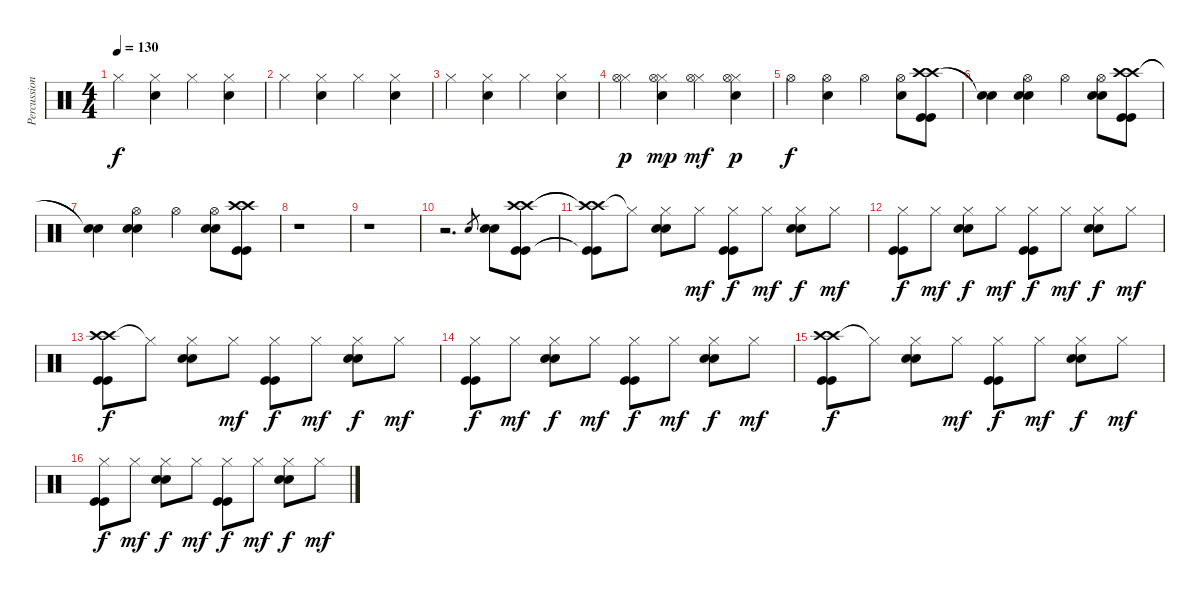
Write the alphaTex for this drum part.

\track ("Percussions" "Percussion") {instrument percussion}
\staff {score}
\articulation defaults
\ts (4 4)
\tempo 130
\clef neutral
\ks c "Hi-Hat (closed)".4{dy f}
("Hi-Hat (closed)" "Snare (hit) 2").4 "Hi-Hat (closed)".4 ("Hi-Hat (closed)" "Snare (hit) 2").4 |
"Hi-Hat (closed)".4 ("Hi-Hat (closed)" "Snare (hit) 2").4 "Hi-Hat (closed)".4 ("Hi-Hat (closed)" "Snare (hit) 2").4 |
"Hi-Hat (closed)".4 ("Hi-Hat (closed)" "Snare (hit) 2").4 "Hi-Hat (closed)".4 ("Hi-Hat (closed)" "Snare (hit) 2").4 |
("Hi-Hat (closed)" "Hi-Hat (open)").4{dy p} ("Hi-Hat (closed)" "Snare (hit) 2" "Hi-Hat (open)").4{dy mp} ("Hi-Hat (closed)" "Hi-Hat (open)").4{dy mf} ("Hi-Hat (closed)" "Snare (hit) 2" "Hi-Hat (open)").4{dy p} |
"Hi-Hat (open)".4{dy f} ("Hi-Hat (open)" "Snare (hit) 2").4 "Hi-Hat (open)".4 ("Hi-Hat (open)" "Snare (hit) 2").8 ("Crash high (hit)" "Crash high (hit)" "Kick (hit)" "Kick (hit)").8 |
("Snare (hit)"{t} "Snare (hit)"{t}).4 ("Hi-Hat (open)" "Snare (hit) 2" "Snare (hit) 2").4 "Hi-Hat (open)".4 ("Hi-Hat (open)" "Snare (hit) 2" "Snare (hit) 2").8 ("Crash high (hit)" "Crash high (hit)" "Kick (hit)" "Kick (hit)").8 |
("Snare (hit)"{t} "Snare (hit)"{t}).4 ("Hi-Hat (open)" "Snare (hit) 2" "Snare (hit) 2").4 "Hi-Hat (open)".4 ("Hi-Hat (open)" "Snare (hit) 2" "Snare (hit) 2").8 ("Crash high (hit)" "Crash high (hit)" "Kick (hit)" "Kick (hit)").8 |
r.1 |
r.1 |
r.2{d} "Snare (hit) 2".8{gr} ("Snare (hit) 2" "Snare (hit) 2").8 ("Crash high (hit)" "Crash high (hit)" "Kick (hit)" "Kick (hit)").8 |
("Crash high (hit)"{t} "Crash high (hit)"{t} "Kick (hit)"{t} "Kick (hit)"{t}).8 "Hi-Hat (closed)"{t}.8 ("Hi-Hat (closed)" "Snare (hit) 2" "Snare (hit) 2").8 "Hi-Hat (closed)".8{dy mf} ("Hi-Hat (closed)" "Kick (hit)" "Kick (hit)").8{dy f} "Hi-Hat (closed)".8{dy mf} ("Hi-Hat (closed)" "Snare (hit) 2" "Snare (hit) 2").8{dy f} "Hi-Hat (closed)".8{dy mf} |
("Hi-Hat (closed)" "Kick (hit)" "Kick (hit)").8{dy f} "Hi-Hat (closed)".8{dy mf} ("Hi-Hat (closed)" "Snare (hit) 2" "Snare (hit) 2").8{dy f} "Hi-Hat (closed)".8{dy mf} ("Hi-Hat (closed)" "Kick (hit)" "Kick (hit)").8{dy f} "Hi-Hat (closed)".8{dy mf} ("Hi-Hat (closed)" "Snare (hit) 2" "Snare (hit) 2").8{dy f} "Hi-Hat (closed)".8{dy mf} |
("Crash high (hit)" "Crash high (hit)" "Kick (hit)" "Kick (hit)").8{dy f} "Hi-Hat (closed)"{t}.8 ("Hi-Hat (closed)" "Snare (hit) 2" "Snare (hit) 2").8 "Hi-Hat (closed)".8{dy mf} ("Hi-Hat (closed)" "Kick (hit)" "Kick (hit)").8{dy f} "Hi-Hat (closed)".8{dy mf} ("Hi-Hat (closed)" "Snare (hit) 2" "Snare (hit) 2").8{dy f} "Hi-Hat (closed)".8{dy mf} |
("Hi-Hat (closed)" "Kick (hit)" "Kick (hit)").8{dy f} "Hi-Hat (closed)".8{dy mf} ("Hi-Hat (closed)" "Snare (hit) 2" "Snare (hit) 2").8{dy f} "Hi-Hat (closed)".8{dy mf} ("Hi-Hat (closed)" "Kick (hit)" "Kick (hit)").8{dy f} "Hi-Hat (closed)".8{dy mf} ("Hi-Hat (closed)" "Snare (hit) 2" "Snare (hit) 2").8{dy f} "Hi-Hat (closed)".8{dy mf} |
("Crash high (hit)" "Crash high (hit)" "Kick (hit)" "Kick (hit)").8{dy f} "Hi-Hat (closed)"{t}.8 ("Hi-Hat (closed)" "Snare (hit) 2" "Snare (hit) 2").8 "Hi-Hat (closed)".8{dy mf} ("Hi-Hat (closed)" "Kick (hit)" "Kick (hit)").8{dy f} "Hi-Hat (closed)".8{dy mf} ("Hi-Hat (closed)" "Snare (hit) 2" "Snare (hit) 2").8{dy f} "Hi-Hat (closed)".8{dy mf} |
("Hi-Hat (closed)" "Kick (hit)" "Kick (hit)").8{dy f} "Hi-Hat (closed)".8{dy mf} ("Hi-Hat (closed)" "Snare (hit) 2" "Snare (hit) 2").8{dy f} "Hi-Hat (closed)".8{dy mf} ("Hi-Hat (closed)" "Kick (hit)" "Kick (hit)").8{dy f} "Hi-Hat (closed)".8{dy mf} ("Hi-Hat (closed)" "Snare (hit) 2" "Snare (hit) 2").8{dy f} "Hi-Hat (closed)".8{dy mf}
